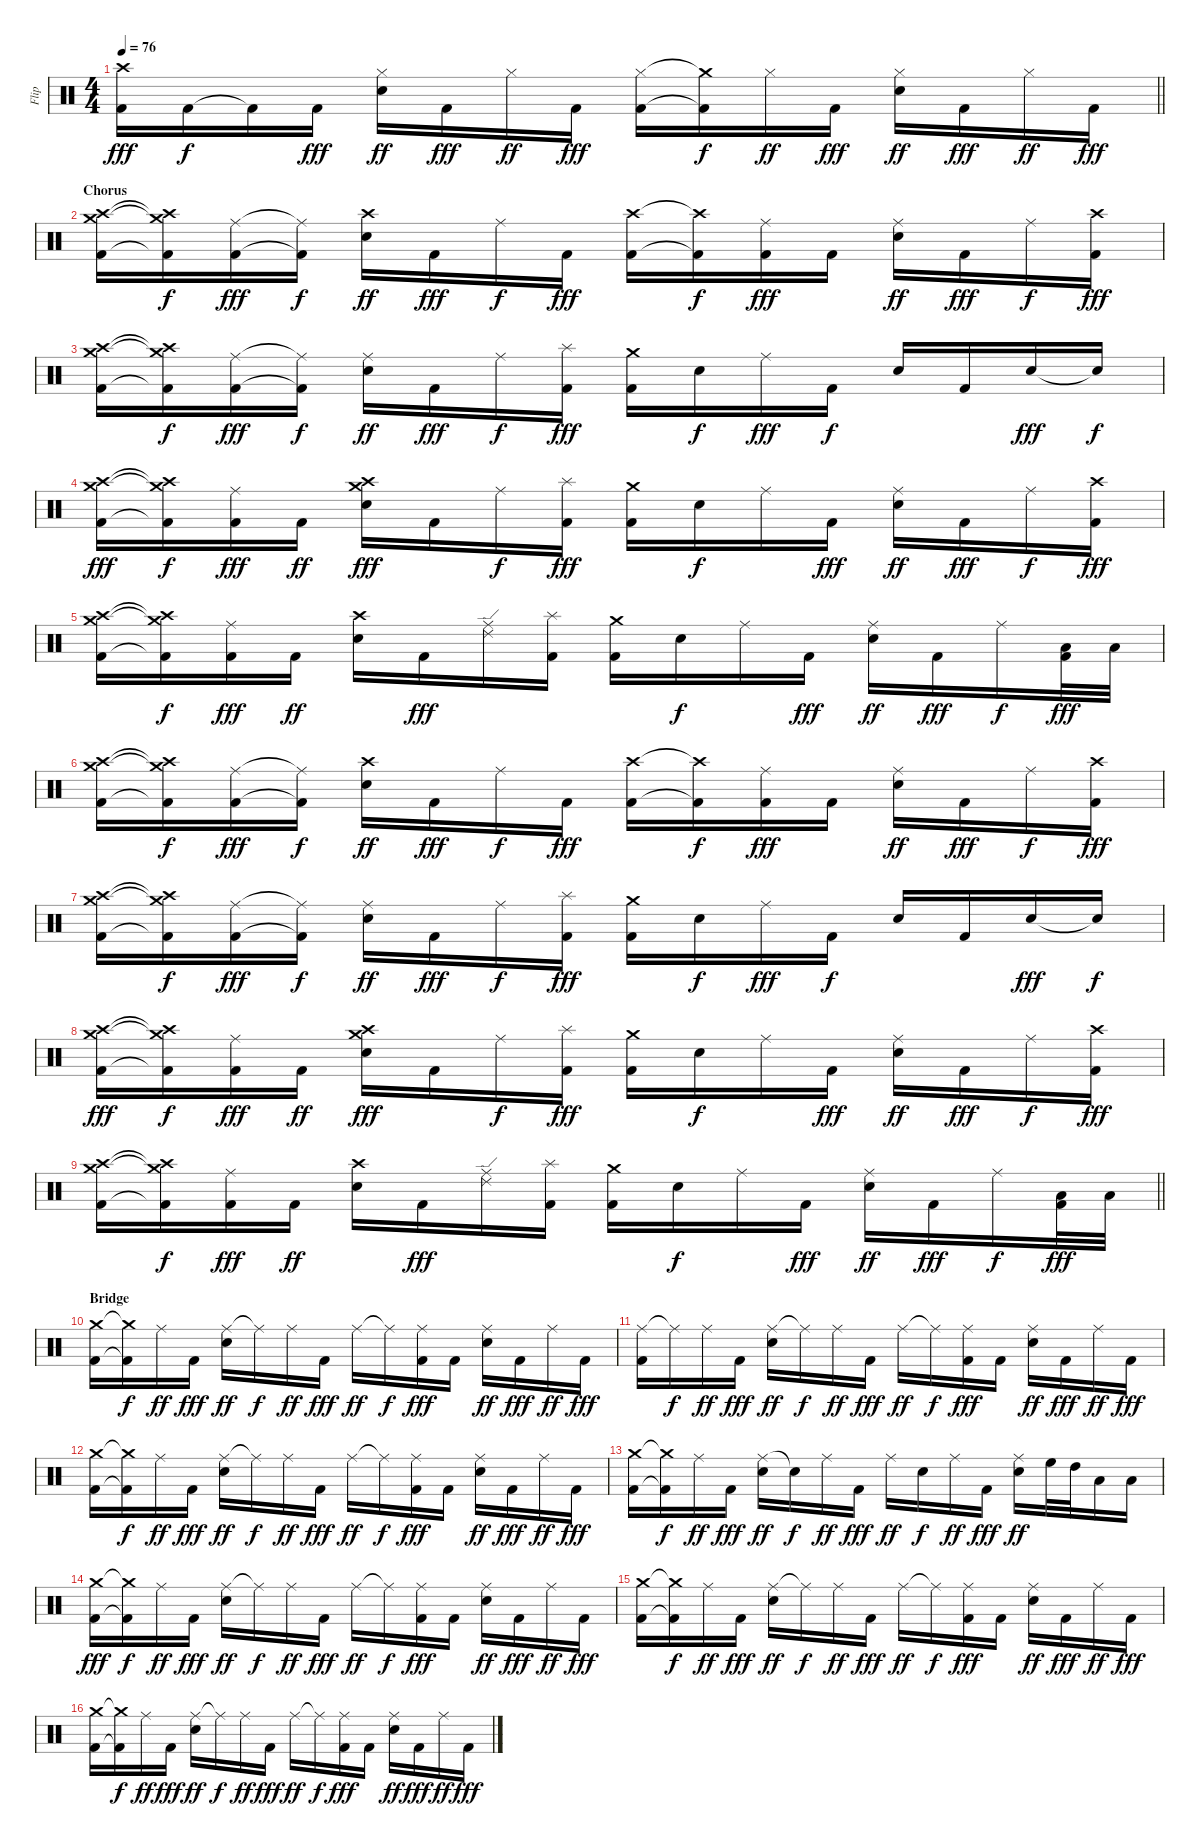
\track ("Flip" "Flip") {instrument percussion}
\staff {score}
\articulation defaults
\ts (4 4)
\tempo 76
\clef neutral
\barLineRight lightlight
\ks c
("Crash high (hit)" "Kick (hit) 2").16{dy fff} "Kick (hit) 2".16{dy f} "Kick (hit) 2"{t}.16 "Kick (hit) 2".16{dy fff} ("Hi-Hat (closed)" "Snare (hit) 2").16{dy ff} "Kick (hit) 2".16{dy fff} "Hi-Hat (closed)".16{dy ff} "Kick (hit) 2".16{dy fff} ("Hi-Hat (closed)" "Kick (hit) 2").16 ("Crash medium (hit)"{t} "Kick (hit) 2"{t}).16{dy f} "Hi-Hat (closed)".16{dy ff} "Kick (hit) 2".16{dy fff} ("Hi-Hat (closed)" "Snare (hit) 2").16{dy ff} "Kick (hit) 2".16{dy fff} "Hi-Hat (closed)".16{dy ff} "Kick (hit) 2".16{dy fff} |
\section ("" "Chorus")
("Crash medium (hit)" "Crash high (hit)" "Kick (hit) 2").16 ("Crash medium (hit)"{t} "Crash high (hit)"{t} "Kick (hit) 2"{t}).16{dy f} ("Ride (middle)" "Kick (hit) 2").16{dy fff} ("Ride (middle)"{t} "Kick (hit) 2"{t}).16{dy f} ("Crash high (hit)" "Snare (hit) 2").16{dy ff} "Kick (hit) 2".16{dy fff} "Ride (middle)".16{dy f} "Kick (hit) 2".16{dy fff} ("Crash high (hit)" "Kick (hit) 2").16 ("Crash high (hit)"{t} "Kick (hit) 2"{t}).16{dy f} ("Ride (middle)" "Kick (hit) 2").16{dy fff} "Kick (hit) 2".16 ("Ride (middle)" "Snare (hit) 2").16{dy ff} "Kick (hit) 2".16{dy fff} "Ride (middle)".16{dy f} ("Crash high (hit)" "Kick (hit) 2").16{dy fff} |
("Crash medium (hit)" "Crash high (hit)" "Kick (hit) 2").16 ("Crash medium (hit)"{t} "Crash high (hit)"{t} "Kick (hit) 2"{t}).16{dy f} ("Ride (middle)" "Kick (hit) 2").16{dy fff} ("Ride (middle)"{t} "Kick (hit) 2"{t}).16{dy f} ("Ride (middle)" "Snare (hit) 2").16{dy ff} "Kick (hit) 2".16{dy fff} "Ride (middle)".16{dy f} ("Splash (hit)" "Kick (hit) 2").16{dy fff} ("Crash medium (hit)" "Kick (hit) 2").16 "Snare (hit) 2".16{dy f} "Ride (middle)".16{dy fff} "Kick (hit) 2".16{dy f} "Snare (hit) 2".16 "Kick (hit) 2".16 "Snare (hit) 2".16{dy fff} "Snare (hit) 2"{t}.16{dy f} |
("Crash medium (hit)" "Crash high (hit)" "Kick (hit) 2").16{dy fff} ("Crash medium (hit)"{t} "Crash high (hit)"{t} "Kick (hit) 2"{t}).16{dy f} ("Ride (middle)" "Kick (hit) 2").16{dy fff} "Kick (hit) 2".16{dy ff} ("Crash high (hit)" "Crash medium (hit)" "Snare (hit) 2").16{dy fff} "Kick (hit) 2".16 "Ride (middle)".16{dy f} ("Splash (hit)" "Kick (hit) 2").16{dy fff} ("Crash medium (hit)" "Kick (hit) 2").16 "Snare (hit) 2".16{dy f} "Ride (middle)".16 "Kick (hit) 2".16{dy fff} ("Ride (middle)" "Snare (hit) 2").16{dy ff} "Kick (hit) 2".16{dy fff} "Ride (middle)".16{dy f} ("Crash high (hit)" "Kick (hit) 2").16{dy fff} |
("Crash medium (hit)" "Crash high (hit)" "Kick (hit) 2").16 ("Crash medium (hit)"{t} "Crash high (hit)"{t} "Kick (hit) 2"{t}).16{dy f} ("Ride (middle)" "Kick (hit) 2").16{dy fff} "Kick (hit) 2".16{dy ff} ("Crash high (hit)" "Snare (hit) 2").16 "Kick (hit) 2".16{dy fff} ("Ride (middle)" "Ride (edge) 2").16 ("Splash (hit)" "Kick (hit) 2").16 ("Crash medium (hit)" "Kick (hit) 2").16 "Snare (hit) 2".16{dy f} "Ride (middle)".16 "Kick (hit) 2".16{dy fff} ("Ride (middle)" "Snare (hit) 2").16{dy ff} "Kick (hit) 2".16{dy fff} "Ride (middle)".16{dy f} ("Low Tom (hit)" "Kick (hit) 2").32{dy fff} "Low Tom (hit)".32 |
("Crash medium (hit)" "Crash high (hit)" "Kick (hit) 2").16 ("Crash medium (hit)"{t} "Crash high (hit)"{t} "Kick (hit) 2"{t}).16{dy f} ("Ride (middle)" "Kick (hit) 2").16{dy fff} ("Ride (middle)"{t} "Kick (hit) 2"{t}).16{dy f} ("Crash high (hit)" "Snare (hit) 2").16{dy ff} "Kick (hit) 2".16{dy fff} "Ride (middle)".16{dy f} "Kick (hit) 2".16{dy fff} ("Crash high (hit)" "Kick (hit) 2").16 ("Crash high (hit)"{t} "Kick (hit) 2"{t}).16{dy f} ("Ride (middle)" "Kick (hit) 2").16{dy fff} "Kick (hit) 2".16 ("Ride (middle)" "Snare (hit) 2").16{dy ff} "Kick (hit) 2".16{dy fff} "Ride (middle)".16{dy f} ("Crash high (hit)" "Kick (hit) 2").16{dy fff} |
("Crash medium (hit)" "Crash high (hit)" "Kick (hit) 2").16 ("Crash medium (hit)"{t} "Crash high (hit)"{t} "Kick (hit) 2"{t}).16{dy f} ("Ride (middle)" "Kick (hit) 2").16{dy fff} ("Ride (middle)"{t} "Kick (hit) 2"{t}).16{dy f} ("Ride (middle)" "Snare (hit) 2").16{dy ff} "Kick (hit) 2".16{dy fff} "Ride (middle)".16{dy f} ("Splash (hit)" "Kick (hit) 2").16{dy fff} ("Crash medium (hit)" "Kick (hit) 2").16 "Snare (hit) 2".16{dy f} "Ride (middle)".16{dy fff} "Kick (hit) 2".16{dy f} "Snare (hit) 2".16 "Kick (hit) 2".16 "Snare (hit) 2".16{dy fff} "Snare (hit) 2"{t}.16{dy f} |
("Crash medium (hit)" "Crash high (hit)" "Kick (hit) 2").16{dy fff} ("Crash medium (hit)"{t} "Crash high (hit)"{t} "Kick (hit) 2"{t}).16{dy f} ("Ride (middle)" "Kick (hit) 2").16{dy fff} "Kick (hit) 2".16{dy ff} ("Crash high (hit)" "Crash medium (hit)" "Snare (hit) 2").16{dy fff} "Kick (hit) 2".16 "Ride (middle)".16{dy f} ("Splash (hit)" "Kick (hit) 2").16{dy fff} ("Crash medium (hit)" "Kick (hit) 2").16 "Snare (hit) 2".16{dy f} "Ride (middle)".16 "Kick (hit) 2".16{dy fff} ("Ride (middle)" "Snare (hit) 2").16{dy ff} "Kick (hit) 2".16{dy fff} "Ride (middle)".16{dy f} ("Crash high (hit)" "Kick (hit) 2").16{dy fff} |
\barLineRight lightlight
("Crash medium (hit)" "Crash high (hit)" "Kick (hit) 2").16 ("Crash medium (hit)"{t} "Crash high (hit)"{t} "Kick (hit) 2"{t}).16{dy f} ("Ride (middle)" "Kick (hit) 2").16{dy fff} "Kick (hit) 2".16{dy ff} ("Crash high (hit)" "Snare (hit) 2").16 "Kick (hit) 2".16{dy fff} ("Ride (middle)" "Ride (edge) 2").16 ("Splash (hit)" "Kick (hit) 2").16 ("Crash medium (hit)" "Kick (hit) 2").16 "Snare (hit) 2".16{dy f} "Ride (middle)".16 "Kick (hit) 2".16{dy fff} ("Ride (middle)" "Snare (hit) 2").16{dy ff} "Kick (hit) 2".16{dy fff} "Ride (middle)".16{dy f} ("Low Tom (hit)" "Kick (hit) 2").32{dy fff} "Low Tom (hit)".32 |
\section ("" "Bridge")
("Crash medium (hit)" "Kick (hit) 2").16 ("Crash medium (hit)"{t} "Kick (hit) 2"{t}).16{dy f} "Ride (middle)".16{dy ff} "Kick (hit) 2".16{dy fff} ("Ride (middle)" "Snare (hit) 2").16{dy ff} "Ride (middle)"{t}.16{dy f} "Ride (middle)".16{dy ff} "Kick (hit) 2".16{dy fff} "Ride (middle)".16{dy ff} "Ride (middle)"{t}.16{dy f} ("Ride (middle)" "Kick (hit) 2").16{dy fff} "Kick (hit) 2".16 ("Ride (middle)" "Snare (hit) 2").16{dy ff} "Kick (hit) 2".16{dy fff} "Ride (middle)".16{dy ff} "Kick (hit) 2".16{dy fff} |
("Ride (middle)" "Kick (hit) 2").16 "Ride (middle)"{t}.16{dy f} "Ride (middle)".16{dy ff} "Kick (hit) 2".16{dy fff} ("Ride (middle)" "Snare (hit) 2").16{dy ff} "Ride (middle)"{t}.16{dy f} "Ride (middle)".16{dy ff} "Kick (hit) 2".16{dy fff} "Ride (middle)".16{dy ff} "Ride (middle)"{t}.16{dy f} ("Ride (middle)" "Kick (hit) 2").16{dy fff} "Kick (hit) 2".16 ("Ride (middle)" "Snare (hit) 2").16{dy ff} "Kick (hit) 2".16{dy fff} "Ride (middle)".16{dy ff} "Kick (hit) 2".16{dy fff} |
("Crash medium (hit)" "Kick (hit) 2").16 ("Crash medium (hit)"{t} "Kick (hit) 2"{t}).16{dy f} "Ride (middle)".16{dy ff} "Kick (hit) 2".16{dy fff} ("Ride (middle)" "Snare (hit) 2").16{dy ff} "Ride (middle)"{t}.16{dy f} "Ride (middle)".16{dy ff} "Kick (hit) 2".16{dy fff} "Ride (middle)".16{dy ff} "Ride (middle)"{t}.16{dy f} ("Ride (middle)" "Kick (hit) 2").16{dy fff} "Kick (hit) 2".16 ("Ride (middle)" "Snare (hit) 2").16{dy ff} "Kick (hit) 2".16{dy fff} "Ride (middle)".16{dy ff} "Kick (hit) 2".16{dy fff} |
("Crash medium (hit)" "Kick (hit) 2").16 ("Crash medium (hit)"{t} "Kick (hit) 2"{t}).16{dy f} "Ride (middle)".16{dy ff} "Kick (hit) 2".16{dy fff} ("Ride (middle)" "Snare (hit) 2").16{dy ff} "Snare (hit) 2"{t}.16{dy f} "Ride (middle)".16{dy ff} "Kick (hit) 2".16{dy fff} "Ride (middle)".16{dy ff} "Snare (hit) 2".16{dy f} "Ride (middle)".16{dy ff} "Kick (hit) 2".16{dy fff} ("Ride (middle)" "Snare (hit) 2").16{dy ff} "High Floor Tom (hit)".32 "High Tom (hit)".32 "Low Tom (hit)".16 "Low Tom (hit)".16 |
("Crash medium (hit)" "Kick (hit) 2").16{dy fff} ("Crash medium (hit)"{t} "Kick (hit) 2"{t}).16{dy f} "Ride (middle)".16{dy ff} "Kick (hit) 2".16{dy fff} ("Ride (middle)" "Snare (hit) 2").16{dy ff} "Ride (middle)"{t}.16{dy f} "Ride (middle)".16{dy ff} "Kick (hit) 2".16{dy fff} "Ride (middle)".16{dy ff} "Ride (middle)"{t}.16{dy f} ("Ride (middle)" "Kick (hit) 2").16{dy fff} "Kick (hit) 2".16 ("Ride (middle)" "Snare (hit) 2").16{dy ff} "Kick (hit) 2".16{dy fff} "Ride (middle)".16{dy ff} "Kick (hit) 2".16{dy fff} |
("Crash medium (hit)" "Kick (hit) 2").16 ("Crash medium (hit)"{t} "Kick (hit) 2"{t}).16{dy f} "Ride (middle)".16{dy ff} "Kick (hit) 2".16{dy fff} ("Ride (middle)" "Snare (hit) 2").16{dy ff} "Ride (middle)"{t}.16{dy f} "Ride (middle)".16{dy ff} "Kick (hit) 2".16{dy fff} "Ride (middle)".16{dy ff} "Ride (middle)"{t}.16{dy f} ("Ride (middle)" "Kick (hit) 2").16{dy fff} "Kick (hit) 2".16 ("Ride (middle)" "Snare (hit) 2").16{dy ff} "Kick (hit) 2".16{dy fff} "Ride (middle)".16{dy ff} "Kick (hit) 2".16{dy fff} |
("Crash medium (hit)" "Kick (hit) 2").16 ("Crash medium (hit)"{t} "Kick (hit) 2"{t}).16{dy f} "Ride (middle)".16{dy ff} "Kick (hit) 2".16{dy fff} ("Ride (middle)" "Snare (hit) 2").16{dy ff} "Ride (middle)"{t}.16{dy f} "Ride (middle)".16{dy ff} "Kick (hit) 2".16{dy fff} "Ride (middle)".16{dy ff} "Ride (middle)"{t}.16{dy f} ("Ride (middle)" "Kick (hit) 2").16{dy fff} "Kick (hit) 2".16 ("Ride (middle)" "Snare (hit) 2").16{dy ff} "Kick (hit) 2".16{dy fff} "Ride (middle)".16{dy ff} "Kick (hit) 2".16{dy fff}
